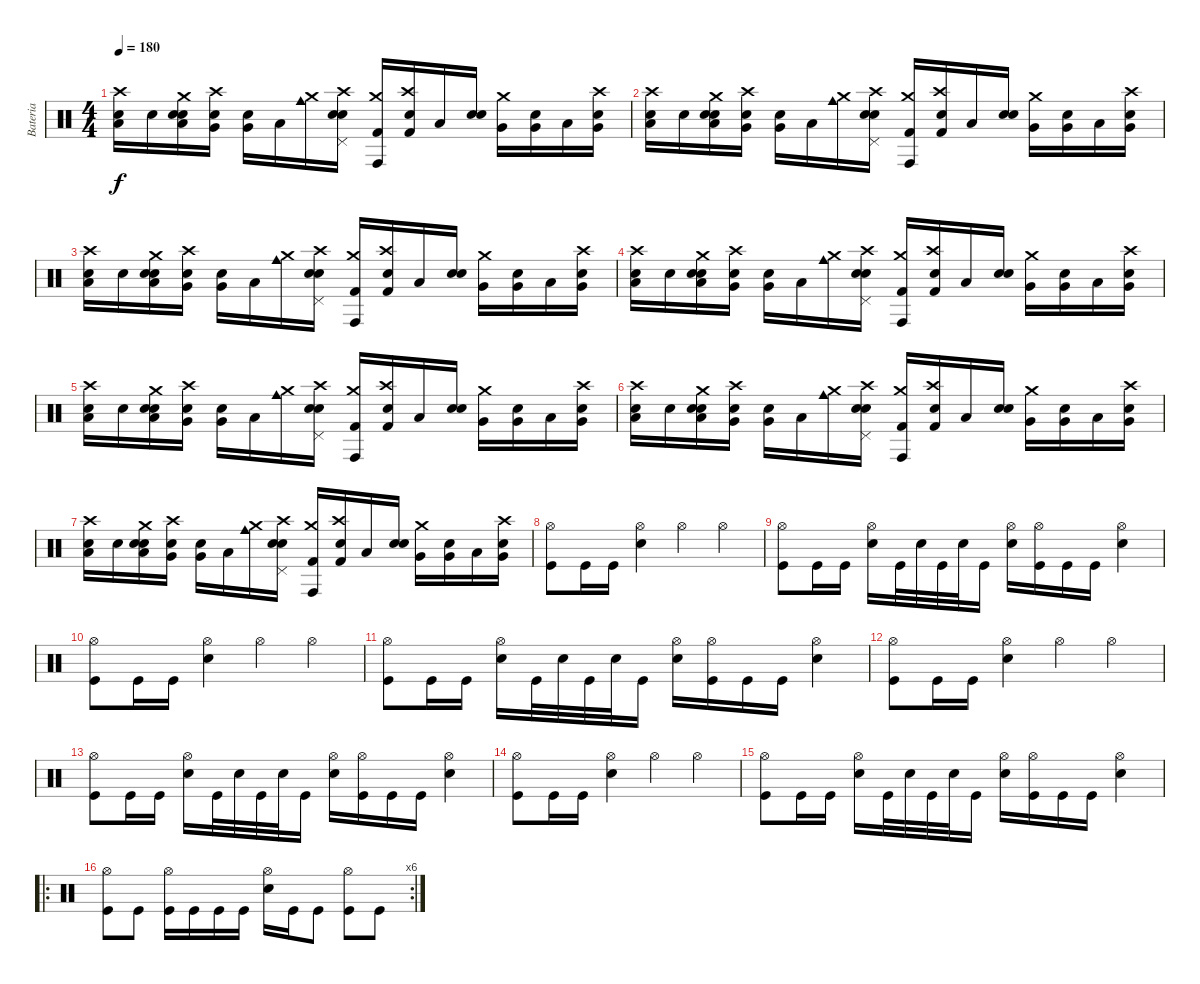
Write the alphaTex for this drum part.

\track ("Bateria" "Bateria") {instrument percussion}
\staff {score}
\articulation defaults
\ts (4 4)
\tempo 180
\clef neutral
\ks c
("Crash high (hit)" "Low Tom (hit)" "Electric Snare (hit)").16{dy f} "Metronome (bell)".16 ("Crash medium (hit)" "Low Tom (hit)" "Metronome (bell)" "Electric Snare (hit)").16 ("Crash high (hit)" "Very Low Tom (hit)" "Snare (hit) 2").16 ("Very Low Tom (hit)" "Electric Snare (hit)").16 "Low Tom (hit)".16 ("Crash medium (hit)" "Cowbell medium (hit)").16 ("Crash high (hit)" "Metronome (bell)" "Pedal Hi-Hat (hit)" "Snare (hit) 2").16 ("Crash medium (hit)" "Kick (hit) 2" "Conga high (hit)").16 ("Crash high (hit)" "Kick (hit) 2" "Electric Snare (hit)").16 "Low Tom (hit)".16 ("Metronome (bell)" "Snare (hit) 2").16 ("Crash medium (hit)" "Very Low Tom (hit)").16 ("Very Low Tom (hit)" "Electric Snare (hit)").16 "Low Tom (hit)".16 ("Crash high (hit)" "Very Low Tom (hit)" "Electric Snare (hit)").16 |
("Crash high (hit)" "Low Tom (hit)" "Electric Snare (hit)").16 "Metronome (bell)".16 ("Crash medium (hit)" "Low Tom (hit)" "Metronome (bell)" "Electric Snare (hit)").16 ("Crash high (hit)" "Very Low Tom (hit)" "Snare (hit) 2").16 ("Very Low Tom (hit)" "Electric Snare (hit)").16 "Low Tom (hit)".16 ("Crash medium (hit)" "Cowbell medium (hit)").16 ("Crash high (hit)" "Metronome (bell)" "Pedal Hi-Hat (hit)" "Snare (hit) 2").16 ("Crash medium (hit)" "Kick (hit) 2" "Conga high (hit)").16 ("Crash high (hit)" "Kick (hit) 2" "Electric Snare (hit)").16 "Low Tom (hit)".16 ("Metronome (bell)" "Snare (hit) 2").16 ("Crash medium (hit)" "Very Low Tom (hit)").16 ("Very Low Tom (hit)" "Electric Snare (hit)").16 "Low Tom (hit)".16 ("Crash high (hit)" "Very Low Tom (hit)" "Electric Snare (hit)").16 |
("Crash high (hit)" "Low Tom (hit)" "Electric Snare (hit)").16 "Metronome (bell)".16 ("Crash medium (hit)" "Low Tom (hit)" "Metronome (bell)" "Electric Snare (hit)").16 ("Crash high (hit)" "Very Low Tom (hit)" "Snare (hit) 2").16 ("Very Low Tom (hit)" "Electric Snare (hit)").16 "Low Tom (hit)".16 ("Crash medium (hit)" "Cowbell medium (hit)").16 ("Crash high (hit)" "Metronome (bell)" "Pedal Hi-Hat (hit)" "Snare (hit) 2").16 ("Crash medium (hit)" "Kick (hit) 2" "Conga high (hit)").16 ("Crash high (hit)" "Kick (hit) 2" "Electric Snare (hit)").16 "Low Tom (hit)".16 ("Metronome (bell)" "Snare (hit) 2").16 ("Crash medium (hit)" "Very Low Tom (hit)").16 ("Very Low Tom (hit)" "Electric Snare (hit)").16 "Low Tom (hit)".16 ("Crash high (hit)" "Very Low Tom (hit)" "Electric Snare (hit)").16 |
("Crash high (hit)" "Low Tom (hit)" "Electric Snare (hit)").16 "Metronome (bell)".16 ("Crash medium (hit)" "Low Tom (hit)" "Metronome (bell)" "Electric Snare (hit)").16 ("Crash high (hit)" "Very Low Tom (hit)" "Snare (hit) 2").16 ("Very Low Tom (hit)" "Electric Snare (hit)").16 "Low Tom (hit)".16 ("Crash medium (hit)" "Cowbell medium (hit)").16 ("Crash high (hit)" "Metronome (bell)" "Pedal Hi-Hat (hit)" "Snare (hit) 2").16 ("Crash medium (hit)" "Kick (hit) 2" "Conga high (hit)").16 ("Crash high (hit)" "Kick (hit) 2" "Electric Snare (hit)").16 "Low Tom (hit)".16 ("Metronome (bell)" "Snare (hit) 2").16 ("Crash medium (hit)" "Very Low Tom (hit)").16 ("Very Low Tom (hit)" "Electric Snare (hit)").16 "Low Tom (hit)".16 ("Crash high (hit)" "Very Low Tom (hit)" "Electric Snare (hit)").16 |
("Crash high (hit)" "Low Tom (hit)" "Electric Snare (hit)").16 "Metronome (bell)".16 ("Crash medium (hit)" "Low Tom (hit)" "Metronome (bell)" "Electric Snare (hit)").16 ("Crash high (hit)" "Very Low Tom (hit)" "Snare (hit) 2").16 ("Very Low Tom (hit)" "Electric Snare (hit)").16 "Low Tom (hit)".16 ("Crash medium (hit)" "Cowbell medium (hit)").16 ("Crash high (hit)" "Metronome (bell)" "Pedal Hi-Hat (hit)" "Snare (hit) 2").16 ("Crash medium (hit)" "Kick (hit) 2" "Conga high (hit)").16 ("Crash high (hit)" "Kick (hit) 2" "Electric Snare (hit)").16 "Low Tom (hit)".16 ("Metronome (bell)" "Snare (hit) 2").16 ("Crash medium (hit)" "Very Low Tom (hit)").16 ("Very Low Tom (hit)" "Electric Snare (hit)").16 "Low Tom (hit)".16 ("Crash high (hit)" "Very Low Tom (hit)" "Electric Snare (hit)").16 |
("Crash high (hit)" "Low Tom (hit)" "Electric Snare (hit)").16 "Metronome (bell)".16 ("Crash medium (hit)" "Low Tom (hit)" "Metronome (bell)" "Electric Snare (hit)").16 ("Crash high (hit)" "Very Low Tom (hit)" "Snare (hit) 2").16 ("Very Low Tom (hit)" "Electric Snare (hit)").16 "Low Tom (hit)".16 ("Crash medium (hit)" "Cowbell medium (hit)").16 ("Crash high (hit)" "Metronome (bell)" "Pedal Hi-Hat (hit)" "Snare (hit) 2").16 ("Crash medium (hit)" "Kick (hit) 2" "Conga high (hit)").16 ("Crash high (hit)" "Kick (hit) 2" "Electric Snare (hit)").16 "Low Tom (hit)".16 ("Metronome (bell)" "Snare (hit) 2").16 ("Crash medium (hit)" "Very Low Tom (hit)").16 ("Very Low Tom (hit)" "Electric Snare (hit)").16 "Low Tom (hit)".16 ("Crash high (hit)" "Very Low Tom (hit)" "Electric Snare (hit)").16 |
("Crash high (hit)" "Low Tom (hit)" "Electric Snare (hit)").16 "Metronome (bell)".16 ("Crash medium (hit)" "Low Tom (hit)" "Metronome (bell)" "Electric Snare (hit)").16 ("Crash high (hit)" "Very Low Tom (hit)" "Snare (hit) 2").16 ("Very Low Tom (hit)" "Electric Snare (hit)").16 "Low Tom (hit)".16 ("Crash medium (hit)" "Cowbell medium (hit)").16 ("Crash high (hit)" "Metronome (bell)" "Pedal Hi-Hat (hit)" "Snare (hit) 2").16 ("Crash medium (hit)" "Kick (hit) 2" "Conga high (hit)").16 ("Crash high (hit)" "Kick (hit) 2" "Electric Snare (hit)").16 "Low Tom (hit)".16 ("Metronome (bell)" "Snare (hit) 2").16 ("Crash medium (hit)" "Very Low Tom (hit)").16 ("Very Low Tom (hit)" "Electric Snare (hit)").16 "Low Tom (hit)".16 ("Crash high (hit)" "Very Low Tom (hit)" "Electric Snare (hit)").16 |
("Hi-Hat (open)" "Kick (hit)").8 "Kick (hit)".16 "Kick (hit)".16 ("Hi-Hat (open)" "Electric Snare (hit)").4 "Hi-Hat (open)".4 "Hi-Hat (open)".4 |
("Hi-Hat (open)" "Kick (hit)").8 "Kick (hit)".16 "Kick (hit)".16 ("Hi-Hat (open)" "Electric Snare (hit)").16 "Kick (hit)".32 "Electric Snare (hit)".32 "Kick (hit)".32 "Electric Snare (hit)".32 "Kick (hit)".16 ("Hi-Hat (open)" "Electric Snare (hit)").16 ("Hi-Hat (open)" "Kick (hit)").16 "Kick (hit)".16 "Kick (hit)".16 ("Hi-Hat (open)" "Electric Snare (hit)").4 |
("Hi-Hat (open)" "Kick (hit)").8 "Kick (hit)".16 "Kick (hit)".16 ("Hi-Hat (open)" "Electric Snare (hit)").4 "Hi-Hat (open)".4 "Hi-Hat (open)".4 |
("Hi-Hat (open)" "Kick (hit)").8 "Kick (hit)".16 "Kick (hit)".16 ("Hi-Hat (open)" "Electric Snare (hit)").16 "Kick (hit)".32 "Electric Snare (hit)".32 "Kick (hit)".32 "Electric Snare (hit)".32 "Kick (hit)".16 ("Hi-Hat (open)" "Electric Snare (hit)").16 ("Hi-Hat (open)" "Kick (hit)").16 "Kick (hit)".16 "Kick (hit)".16 ("Hi-Hat (open)" "Electric Snare (hit)").4 |
("Hi-Hat (open)" "Kick (hit)").8 "Kick (hit)".16 "Kick (hit)".16 ("Hi-Hat (open)" "Electric Snare (hit)").4 "Hi-Hat (open)".4 "Hi-Hat (open)".4 |
("Hi-Hat (open)" "Kick (hit)").8 "Kick (hit)".16 "Kick (hit)".16 ("Hi-Hat (open)" "Electric Snare (hit)").16 "Kick (hit)".32 "Electric Snare (hit)".32 "Kick (hit)".32 "Electric Snare (hit)".32 "Kick (hit)".16 ("Hi-Hat (open)" "Electric Snare (hit)").16 ("Hi-Hat (open)" "Kick (hit)").16 "Kick (hit)".16 "Kick (hit)".16 ("Hi-Hat (open)" "Electric Snare (hit)").4 |
("Hi-Hat (open)" "Kick (hit)").8 "Kick (hit)".16 "Kick (hit)".16 ("Hi-Hat (open)" "Electric Snare (hit)").4 "Hi-Hat (open)".4 "Hi-Hat (open)".4 |
("Hi-Hat (open)" "Kick (hit)").8 "Kick (hit)".16 "Kick (hit)".16 ("Hi-Hat (open)" "Electric Snare (hit)").16 "Kick (hit)".32 "Electric Snare (hit)".32 "Kick (hit)".32 "Electric Snare (hit)".32 "Kick (hit)".16 ("Hi-Hat (open)" "Electric Snare (hit)").16 ("Hi-Hat (open)" "Kick (hit)").16 "Kick (hit)".16 "Kick (hit)".16 ("Hi-Hat (open)" "Electric Snare (hit)").4 |
\ro
\rc 6
("Hi-Hat (open)" "Kick (hit)").8 "Kick (hit)".8 ("Hi-Hat (open)" "Kick (hit)").16 "Kick (hit)".16 "Kick (hit)".16 "Kick (hit)".16 ("Hi-Hat (open)" "Electric Snare (hit)").16 "Kick (hit)".16 "Kick (hit)".8 ("Hi-Hat (open)" "Kick (hit)").8 "Kick (hit)".8
